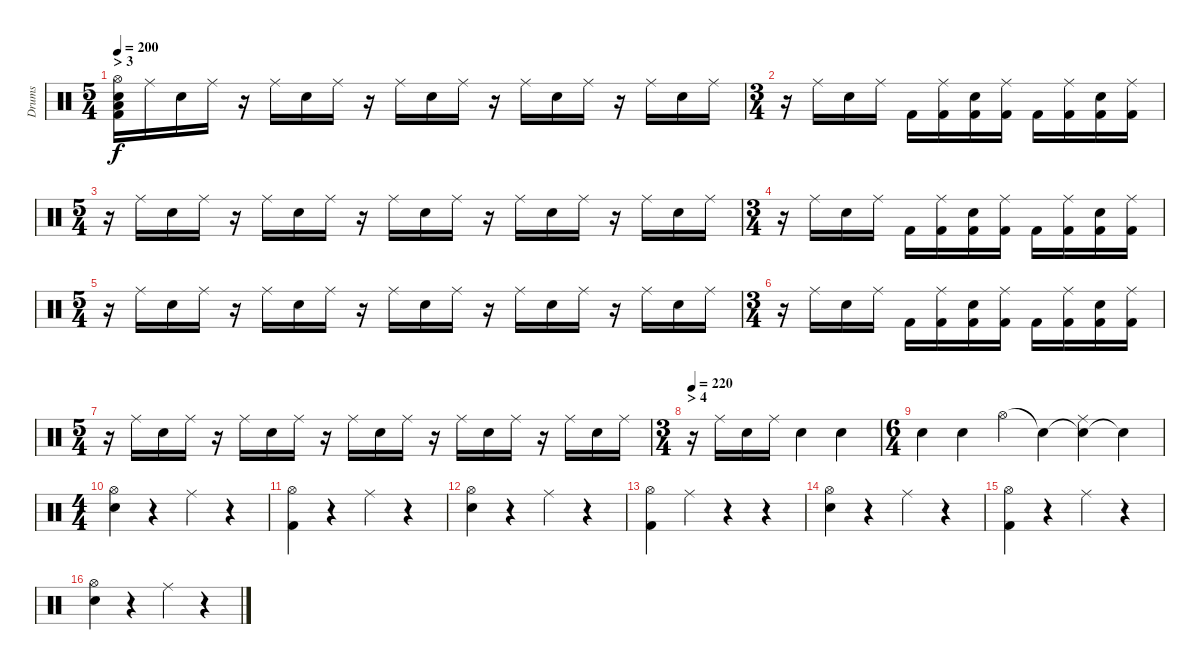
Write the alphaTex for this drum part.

\track ("Drums" "Drums") {instrument percussion}
\staff {score}
\articulation defaults
\ts (5 4)
\section ("" "> 3")
\tempo 200
\clef neutral
\ks c
("Hi-Hat (open)" "Kick (hit) 2" "Snare (hit) 2" "Low Floor Tom (hit)").16{dy f} "Ride (middle)".16 "Electric Snare (hit)".16 "Ride (middle)".16 r.16 "Ride (middle)".16 "Electric Snare (hit)".16 "Ride (middle)".16 r.16 "Ride (middle)".16 "Electric Snare (hit)".16 "Ride (middle)".16 r.16 "Ride (middle)".16 "Electric Snare (hit)".16 "Ride (middle)".16 r.16 "Ride (middle)".16 "Electric Snare (hit)".16 "Ride (middle)".16 |
\ts (3 4)
r.16 "Ride (middle)".16 "Electric Snare (hit)".16 "Ride (middle)".16 "Kick (hit) 2".16 ("Kick (hit) 2" "Ride (middle)").16 ("Kick (hit) 2" "Electric Snare (hit)").16 ("Kick (hit) 2" "Ride (middle)").16 "Kick (hit) 2".16 ("Kick (hit) 2" "Ride (middle)").16 ("Kick (hit) 2" "Electric Snare (hit)").16 ("Kick (hit) 2" "Ride (middle)").16 |
\ts (5 4)
r.16 "Ride (middle)".16 "Electric Snare (hit)".16 "Ride (middle)".16 r.16 "Ride (middle)".16 "Electric Snare (hit)".16 "Ride (middle)".16 r.16 "Ride (middle)".16 "Electric Snare (hit)".16 "Ride (middle)".16 r.16 "Ride (middle)".16 "Electric Snare (hit)".16 "Ride (middle)".16 r.16 "Ride (middle)".16 "Electric Snare (hit)".16 "Ride (middle)".16 |
\ts (3 4)
r.16 "Ride (middle)".16 "Electric Snare (hit)".16 "Ride (middle)".16 "Kick (hit) 2".16 ("Kick (hit) 2" "Ride (middle)").16 ("Kick (hit) 2" "Electric Snare (hit)").16 ("Kick (hit) 2" "Ride (middle)").16 "Kick (hit) 2".16 ("Kick (hit) 2" "Ride (middle)").16 ("Kick (hit) 2" "Electric Snare (hit)").16 ("Kick (hit) 2" "Ride (middle)").16 |
\ts (5 4)
r.16 "Ride (middle)".16 "Electric Snare (hit)".16 "Ride (middle)".16 r.16 "Ride (middle)".16 "Electric Snare (hit)".16 "Ride (middle)".16 r.16 "Ride (middle)".16 "Electric Snare (hit)".16 "Ride (middle)".16 r.16 "Ride (middle)".16 "Electric Snare (hit)".16 "Ride (middle)".16 r.16 "Ride (middle)".16 "Electric Snare (hit)".16 "Ride (middle)".16 |
\ts (3 4)
r.16 "Ride (middle)".16 "Electric Snare (hit)".16 "Ride (middle)".16 "Kick (hit) 2".16 ("Kick (hit) 2" "Ride (middle)").16 ("Kick (hit) 2" "Electric Snare (hit)").16 ("Kick (hit) 2" "Ride (middle)").16 "Kick (hit) 2".16 ("Kick (hit) 2" "Ride (middle)").16 ("Kick (hit) 2" "Electric Snare (hit)").16 ("Kick (hit) 2" "Ride (middle)").16 |
\ts (5 4)
r.16 "Ride (middle)".16 "Electric Snare (hit)".16 "Ride (middle)".16 r.16 "Ride (middle)".16 "Electric Snare (hit)".16 "Ride (middle)".16 r.16 "Ride (middle)".16 "Electric Snare (hit)".16 "Ride (middle)".16 r.16 "Ride (middle)".16 "Electric Snare (hit)".16 "Ride (middle)".16 r.16 "Ride (middle)".16 "Electric Snare (hit)".16 "Ride (middle)".16 |
\ts (3 4)
\section ("" "> 4")
\tempo 220
r.16 "Ride (middle)".16 "Electric Snare (hit)".16 "Ride (middle)".16 "Electric Snare (hit)".4 "Electric Snare (hit)".4 |
\ts (6 4)
"Electric Snare (hit)".4 "Electric Snare (hit)".4 "Hi-Hat (open)".4 "Snare (hit)"{t}.4 ("Snare (hit)"{t} "Ride (middle)").4 "Snare (hit)"{t}.4 |
\ts (4 4)
("Hi-Hat (open)" "Electric Snare (hit)").4 r.4 "Ride (middle)".4 r.4 |
("Hi-Hat (open)" "Kick (hit) 2").4 r.4 "Ride (middle)".4 r.4 |
("Hi-Hat (open)" "Electric Snare (hit)").4 r.4 "Ride (middle)".4 r.4 |
("Hi-Hat (open)" "Kick (hit) 2").4 "Ride (middle)".4 r.4 r.4 |
("Hi-Hat (open)" "Electric Snare (hit)").4 r.4 "Ride (middle)".4 r.4 |
("Hi-Hat (open)" "Kick (hit) 2").4 r.4 "Ride (middle)".4 r.4 |
("Hi-Hat (open)" "Electric Snare (hit)").4 r.4 "Ride (middle)".4 r.4
